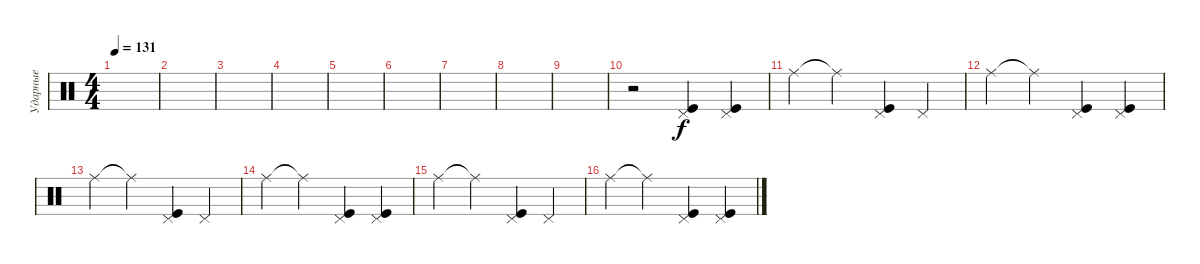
\track ("Ударные" "Ударные") {instrument percussion}
\staff {score}
\articulation defaults
\ts (4 4)
\tempo 131
\clef neutral
\ks c
|
|
|
|
|
|
|
|
|
r.2 ("Pedal Hi-Hat (hit)" "Kick (hit)").4 ("Pedal Hi-Hat (hit)" "Kick (hit)").4 |
"Ride (middle)".4 "Ride (middle)"{t}.4 ("Pedal Hi-Hat (hit)" "Kick (hit)").4 "Pedal Hi-Hat (hit)".4 |
"Ride (middle)".4 "Ride (middle)"{t}.4 ("Pedal Hi-Hat (hit)" "Kick (hit)").4 ("Pedal Hi-Hat (hit)" "Kick (hit)").4 |
"Ride (middle)".4 "Ride (middle)"{t}.4 ("Pedal Hi-Hat (hit)" "Kick (hit)").4 "Pedal Hi-Hat (hit)".4 |
"Ride (middle)".4 "Ride (middle)"{t}.4 ("Pedal Hi-Hat (hit)" "Kick (hit)").4 ("Pedal Hi-Hat (hit)" "Kick (hit)").4 |
"Ride (middle)".4 "Ride (middle)"{t}.4 ("Pedal Hi-Hat (hit)" "Kick (hit)").4 "Pedal Hi-Hat (hit)".4 |
"Ride (middle)".4 "Ride (middle)"{t}.4 ("Pedal Hi-Hat (hit)" "Kick (hit)").4 ("Pedal Hi-Hat (hit)" "Kick (hit)").4
